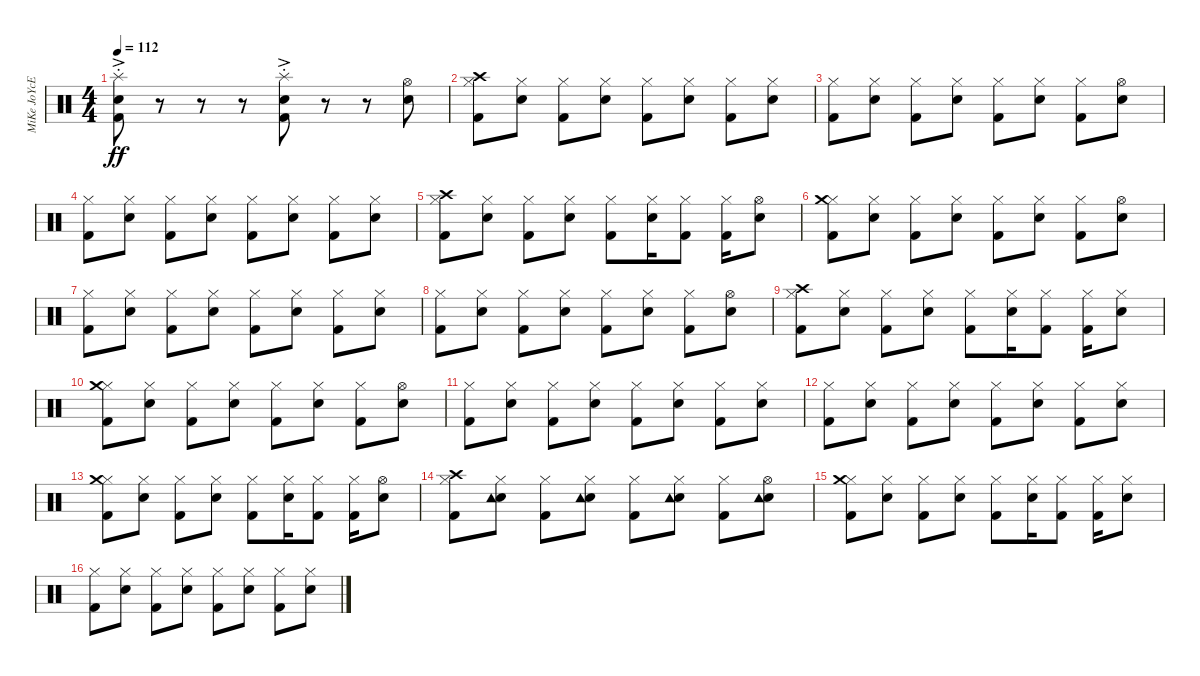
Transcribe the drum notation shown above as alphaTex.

\track ("MiKe JoYcE" "MiKe JoYcE") {instrument percussion}
\staff {score}
\articulation defaults
\ts (4 4)
\tempo 112
\clef neutral
\ks c
("Splash (hit)"{ac st} "Electric Snare (hit)" "Kick (hit) 2").8{dy ff} r.8 r.8 r.8 ("Splash (hit)"{ac st} "Electric Snare (hit)" "Kick (hit) 2").8 r.8 r.8 ("Hi-Hat (open)" "Electric Snare (hit)").8 |
("Hi-Hat (closed)" "Crash high (hit)" "Kick (hit) 2").8 ("Hi-Hat (closed)" "Electric Snare (hit)").8 ("Hi-Hat (closed)" "Kick (hit) 2").8 ("Hi-Hat (closed)" "Electric Snare (hit)").8 ("Hi-Hat (closed)" "Kick (hit) 2").8 ("Hi-Hat (closed)" "Electric Snare (hit)").8 ("Hi-Hat (closed)" "Kick (hit) 2").8 ("Hi-Hat (closed)" "Electric Snare (hit)").8 |
("Hi-Hat (closed)" "Kick (hit) 2").8 ("Hi-Hat (closed)" "Electric Snare (hit)").8 ("Hi-Hat (closed)" "Kick (hit) 2").8 ("Hi-Hat (closed)" "Electric Snare (hit)").8 ("Hi-Hat (closed)" "Kick (hit) 2").8 ("Hi-Hat (closed)" "Electric Snare (hit)").8 ("Hi-Hat (closed)" "Kick (hit) 2").8 ("Hi-Hat (open)" "Electric Snare (hit)").8 |
("Hi-Hat (closed)" "Kick (hit) 2").8 ("Hi-Hat (closed)" "Electric Snare (hit)").8 ("Hi-Hat (closed)" "Kick (hit) 2").8 ("Hi-Hat (closed)" "Electric Snare (hit)").8 ("Hi-Hat (closed)" "Kick (hit) 2").8 ("Hi-Hat (closed)" "Electric Snare (hit)").8 ("Hi-Hat (closed)" "Kick (hit) 2").8 ("Hi-Hat (closed)" "Electric Snare (hit)").8 |
("Hi-Hat (closed)" "Crash high (hit)" "Kick (hit) 2").8 ("Hi-Hat (closed)" "Electric Snare (hit)").8 ("Hi-Hat (closed)" "Kick (hit) 2").8 ("Hi-Hat (closed)" "Electric Snare (hit)").8 ("Hi-Hat (closed)" "Kick (hit) 2").8 ("Hi-Hat (closed)" "Electric Snare (hit)").16 ("Hi-Hat (closed)" "Kick (hit) 2").8 ("Hi-Hat (closed)" "Kick (hit) 2").16 ("Hi-Hat (open)" "Electric Snare (hit)").8 |
("Hi-Hat (closed)" "Crash medium (hit)" "Kick (hit) 2").8 ("Hi-Hat (closed)" "Electric Snare (hit)").8 ("Hi-Hat (closed)" "Kick (hit) 2").8 ("Hi-Hat (closed)" "Electric Snare (hit)").8 ("Hi-Hat (closed)" "Kick (hit) 2").8 ("Hi-Hat (closed)" "Electric Snare (hit)").8 ("Hi-Hat (closed)" "Kick (hit) 2").8 ("Hi-Hat (open)" "Electric Snare (hit)").8 |
("Hi-Hat (closed)" "Kick (hit) 2").8 ("Hi-Hat (closed)" "Electric Snare (hit)").8 ("Hi-Hat (closed)" "Kick (hit) 2").8 ("Hi-Hat (closed)" "Electric Snare (hit)").8 ("Hi-Hat (closed)" "Kick (hit) 2").8 ("Hi-Hat (closed)" "Electric Snare (hit)").8 ("Hi-Hat (closed)" "Kick (hit) 2").8 ("Hi-Hat (closed)" "Electric Snare (hit)").8 |
("Hi-Hat (closed)" "Kick (hit) 2").8 ("Hi-Hat (closed)" "Electric Snare (hit)").8 ("Hi-Hat (closed)" "Kick (hit) 2").8 ("Hi-Hat (closed)" "Electric Snare (hit)").8 ("Hi-Hat (closed)" "Kick (hit) 2").8 ("Hi-Hat (closed)" "Electric Snare (hit)").8 ("Hi-Hat (closed)" "Kick (hit) 2").8 ("Hi-Hat (open)" "Electric Snare (hit)").8 |
("Hi-Hat (closed)" "Crash high (hit)" "Kick (hit) 2").8 ("Hi-Hat (closed)" "Electric Snare (hit)").8 ("Hi-Hat (closed)" "Kick (hit) 2").8 ("Hi-Hat (closed)" "Electric Snare (hit)").8 ("Hi-Hat (closed)" "Kick (hit) 2").8 ("Hi-Hat (closed)" "Electric Snare (hit)").16 ("Hi-Hat (closed)" "Kick (hit) 2").8 ("Hi-Hat (closed)" "Kick (hit) 2").16 ("Hi-Hat (closed)" "Electric Snare (hit)").8 |
("Hi-Hat (closed)" "Crash medium (hit)" "Kick (hit) 2").8 ("Hi-Hat (closed)" "Electric Snare (hit)").8 ("Hi-Hat (closed)" "Kick (hit) 2").8 ("Hi-Hat (closed)" "Electric Snare (hit)").8 ("Hi-Hat (closed)" "Kick (hit) 2").8 ("Hi-Hat (closed)" "Electric Snare (hit)").8 ("Hi-Hat (closed)" "Kick (hit) 2").8 ("Hi-Hat (open)" "Electric Snare (hit)").8 |
("Hi-Hat (closed)" "Kick (hit) 2").8 ("Hi-Hat (closed)" "Electric Snare (hit)").8 ("Hi-Hat (closed)" "Kick (hit) 2").8 ("Hi-Hat (closed)" "Electric Snare (hit)").8 ("Hi-Hat (closed)" "Kick (hit) 2").8 ("Hi-Hat (closed)" "Electric Snare (hit)").8 ("Hi-Hat (closed)" "Kick (hit) 2").8 ("Hi-Hat (closed)" "Electric Snare (hit)").8 |
("Hi-Hat (closed)" "Kick (hit) 2").8 ("Hi-Hat (closed)" "Electric Snare (hit)").8 ("Hi-Hat (closed)" "Kick (hit) 2").8 ("Hi-Hat (closed)" "Electric Snare (hit)").8 ("Hi-Hat (closed)" "Kick (hit) 2").8 ("Hi-Hat (closed)" "Electric Snare (hit)").8 ("Hi-Hat (closed)" "Kick (hit) 2").8 ("Hi-Hat (closed)" "Electric Snare (hit)").8 |
("Hi-Hat (closed)" "Crash medium (hit)" "Kick (hit) 2").8 ("Hi-Hat (closed)" "Electric Snare (hit)").8 ("Hi-Hat (closed)" "Kick (hit) 2").8 ("Hi-Hat (closed)" "Electric Snare (hit)").8 ("Hi-Hat (closed)" "Kick (hit) 2").8 ("Hi-Hat (closed)" "Electric Snare (hit)").16 ("Hi-Hat (closed)" "Kick (hit) 2").8 ("Hi-Hat (closed)" "Kick (hit) 2").16 ("Hi-Hat (open)" "Electric Snare (hit)").8 |
("Hi-Hat (closed)" "Crash high (hit)" "Kick (hit) 2").8 ("Hi-Hat (closed)" "Electric Snare (hit)" "Tambourine (hit)").8 ("Hi-Hat (closed)" "Kick (hit) 2").8 ("Hi-Hat (closed)" "Electric Snare (hit)" "Tambourine (hit)").8 ("Hi-Hat (closed)" "Kick (hit) 2").8 ("Hi-Hat (closed)" "Electric Snare (hit)" "Tambourine (hit)").8 ("Hi-Hat (closed)" "Kick (hit) 2").8 ("Hi-Hat (open)" "Electric Snare (hit)" "Tambourine (hit)").8 |
("Hi-Hat (closed)" "Crash medium (hit)" "Kick (hit) 2").8 ("Hi-Hat (closed)" "Electric Snare (hit)").8 ("Hi-Hat (closed)" "Kick (hit) 2").8 ("Hi-Hat (closed)" "Electric Snare (hit)").8 ("Hi-Hat (closed)" "Kick (hit) 2").8 ("Hi-Hat (closed)" "Electric Snare (hit)").16 ("Hi-Hat (closed)" "Kick (hit) 2").8 ("Hi-Hat (closed)" "Kick (hit) 2").16 ("Hi-Hat (closed)" "Electric Snare (hit)").8 |
("Hi-Hat (closed)" "Kick (hit) 2").8 ("Hi-Hat (closed)" "Electric Snare (hit)").8 ("Hi-Hat (closed)" "Kick (hit) 2").8 ("Hi-Hat (closed)" "Electric Snare (hit)").8 ("Hi-Hat (closed)" "Kick (hit) 2").8 ("Hi-Hat (closed)" "Electric Snare (hit)").8 ("Hi-Hat (closed)" "Kick (hit) 2").8 ("Hi-Hat (closed)" "Electric Snare (hit)").8
